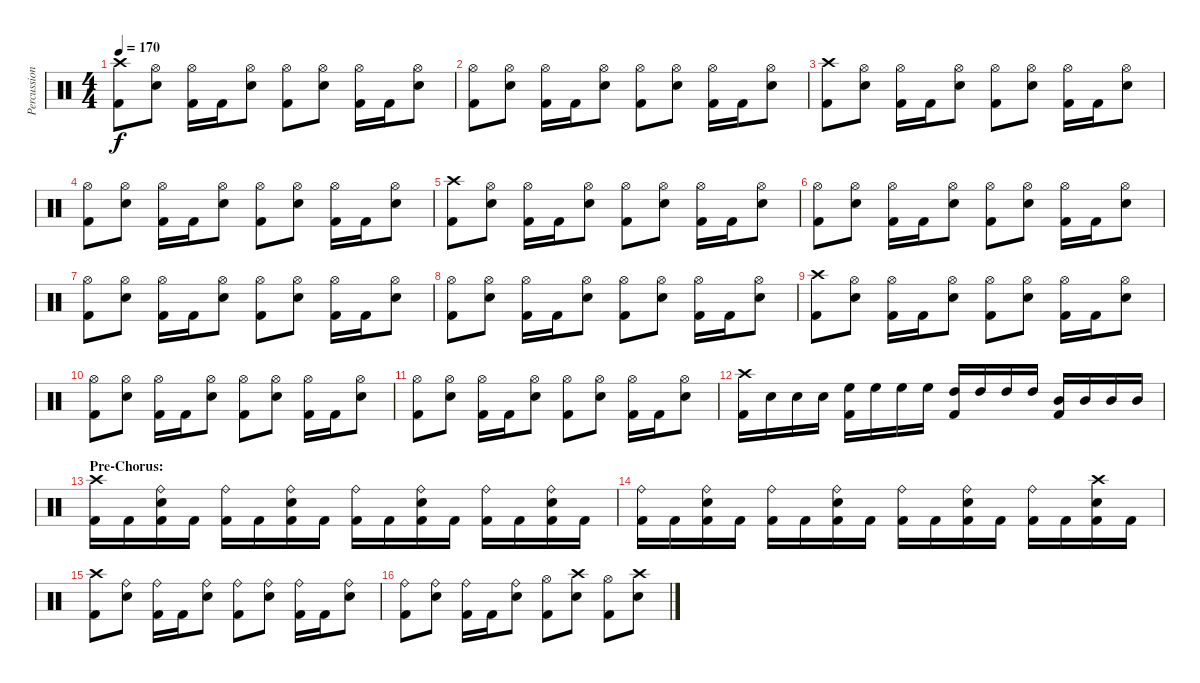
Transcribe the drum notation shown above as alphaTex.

\track ("Percussion" "Percussion") {instrument percussion}
\staff {score}
\articulation defaults
\ts (4 4)
\tempo 170
\clef neutral
\ks c
("Crash high (hit)" "Kick (hit) 2").8{dy f} ("Hi-Hat (open)" "Electric Snare (hit)").8 ("Hi-Hat (open)" "Kick (hit) 2").16 "Kick (hit) 2".16 ("Hi-Hat (open)" "Electric Snare (hit)").8 ("Hi-Hat (open)" "Kick (hit) 2").8 ("Hi-Hat (open)" "Electric Snare (hit)").8 ("Hi-Hat (open)" "Kick (hit) 2").16 "Kick (hit) 2".16 ("Hi-Hat (open)" "Electric Snare (hit)").8 |
("Hi-Hat (open)" "Kick (hit) 2").8 ("Hi-Hat (open)" "Electric Snare (hit)").8 ("Hi-Hat (open)" "Kick (hit) 2").16 "Kick (hit) 2".16 ("Hi-Hat (open)" "Electric Snare (hit)").8 ("Hi-Hat (open)" "Kick (hit) 2").8 ("Hi-Hat (open)" "Electric Snare (hit)").8 ("Hi-Hat (open)" "Kick (hit) 2").16 "Kick (hit) 2".16 ("Hi-Hat (open)" "Electric Snare (hit)").8 |
("Crash high (hit)" "Kick (hit) 2").8 ("Hi-Hat (open)" "Electric Snare (hit)").8 ("Hi-Hat (open)" "Kick (hit) 2").16 "Kick (hit) 2".16 ("Hi-Hat (open)" "Electric Snare (hit)").8 ("Hi-Hat (open)" "Kick (hit) 2").8 ("Hi-Hat (open)" "Electric Snare (hit)").8 ("Hi-Hat (open)" "Kick (hit) 2").16 "Kick (hit) 2".16 ("Hi-Hat (open)" "Electric Snare (hit)").8 |
("Hi-Hat (open)" "Kick (hit) 2").8 ("Hi-Hat (open)" "Electric Snare (hit)").8 ("Hi-Hat (open)" "Kick (hit) 2").16 "Kick (hit) 2".16 ("Hi-Hat (open)" "Electric Snare (hit)").8 ("Hi-Hat (open)" "Kick (hit) 2").8 ("Hi-Hat (open)" "Electric Snare (hit)").8 ("Hi-Hat (open)" "Kick (hit) 2").16 "Kick (hit) 2".16 ("Hi-Hat (open)" "Electric Snare (hit)").8 |
("Crash high (hit)" "Kick (hit) 2").8 ("Hi-Hat (open)" "Electric Snare (hit)").8 ("Hi-Hat (open)" "Kick (hit) 2").16 "Kick (hit) 2".16 ("Hi-Hat (open)" "Electric Snare (hit)").8 ("Hi-Hat (open)" "Kick (hit) 2").8 ("Hi-Hat (open)" "Electric Snare (hit)").8 ("Hi-Hat (open)" "Kick (hit) 2").16 "Kick (hit) 2".16 ("Hi-Hat (open)" "Electric Snare (hit)").8 |
("Hi-Hat (open)" "Kick (hit) 2").8 ("Hi-Hat (open)" "Electric Snare (hit)").8 ("Hi-Hat (open)" "Kick (hit) 2").16 "Kick (hit) 2".16 ("Hi-Hat (open)" "Electric Snare (hit)").8 ("Hi-Hat (open)" "Kick (hit) 2").8 ("Hi-Hat (open)" "Electric Snare (hit)").8 ("Hi-Hat (open)" "Kick (hit) 2").16 "Kick (hit) 2".16 ("Hi-Hat (open)" "Electric Snare (hit)").8 |
("Hi-Hat (open)" "Kick (hit) 2").8 ("Hi-Hat (open)" "Electric Snare (hit)").8 ("Hi-Hat (open)" "Kick (hit) 2").16 "Kick (hit) 2".16 ("Hi-Hat (open)" "Electric Snare (hit)").8 ("Hi-Hat (open)" "Kick (hit) 2").8 ("Hi-Hat (open)" "Electric Snare (hit)").8 ("Hi-Hat (open)" "Kick (hit) 2").16 "Kick (hit) 2".16 ("Hi-Hat (open)" "Electric Snare (hit)").8 |
("Hi-Hat (open)" "Kick (hit) 2").8 ("Hi-Hat (open)" "Electric Snare (hit)").8 ("Hi-Hat (open)" "Kick (hit) 2").16 "Kick (hit) 2".16 ("Hi-Hat (open)" "Electric Snare (hit)").8 ("Hi-Hat (open)" "Kick (hit) 2").8 ("Hi-Hat (open)" "Electric Snare (hit)").8 ("Hi-Hat (open)" "Kick (hit) 2").16 "Kick (hit) 2".16 ("Hi-Hat (open)" "Electric Snare (hit)").8 |
("Crash high (hit)" "Kick (hit) 2").8 ("Hi-Hat (open)" "Electric Snare (hit)").8 ("Hi-Hat (open)" "Kick (hit) 2").16 "Kick (hit) 2".16 ("Hi-Hat (open)" "Electric Snare (hit)").8 ("Hi-Hat (open)" "Kick (hit) 2").8 ("Hi-Hat (open)" "Electric Snare (hit)").8 ("Hi-Hat (open)" "Kick (hit) 2").16 "Kick (hit) 2".16 ("Hi-Hat (open)" "Electric Snare (hit)").8 |
("Hi-Hat (open)" "Kick (hit) 2").8 ("Hi-Hat (open)" "Electric Snare (hit)").8 ("Hi-Hat (open)" "Kick (hit) 2").16 "Kick (hit) 2".16 ("Hi-Hat (open)" "Electric Snare (hit)").8 ("Hi-Hat (open)" "Kick (hit) 2").8 ("Hi-Hat (open)" "Electric Snare (hit)").8 ("Hi-Hat (open)" "Kick (hit) 2").16 "Kick (hit) 2".16 ("Hi-Hat (open)" "Electric Snare (hit)").8 |
("Hi-Hat (open)" "Kick (hit) 2").8 ("Hi-Hat (open)" "Electric Snare (hit)").8 ("Hi-Hat (open)" "Kick (hit) 2").16 "Kick (hit) 2".16 ("Hi-Hat (open)" "Electric Snare (hit)").8 ("Hi-Hat (open)" "Kick (hit) 2").8 ("Hi-Hat (open)" "Electric Snare (hit)").8 ("Hi-Hat (open)" "Kick (hit) 2").16 "Kick (hit) 2".16 ("Hi-Hat (open)" "Electric Snare (hit)").8 |
("Crash high (hit)" "Kick (hit) 2").16 "Electric Snare (hit)".16 "Electric Snare (hit)".16 "Electric Snare (hit)".16 ("High Floor Tom (hit)" "Kick (hit) 2").16 "High Floor Tom (hit)".16 "High Floor Tom (hit)".16 "High Floor Tom (hit)".16 ("High Tom (hit)" "Kick (hit) 2").16 "High Tom (hit)".16 "High Tom (hit)".16 "High Tom (hit)".16 ("Mid Tom (hit)" "Kick (hit) 2").16 "Mid Tom (hit)".16 "Mid Tom (hit)".16 "Mid Tom (hit)".16 |
\section ("" "Pre-Chorus:")
("Crash high (hit)" "Kick (hit) 2").16 "Kick (hit) 2".16 ("Ride (bell)" "Electric Snare (hit)" "Kick (hit) 2").16 "Kick (hit) 2".16 ("Ride (bell)" "Kick (hit) 2").16 "Kick (hit) 2".16 ("Ride (bell)" "Electric Snare (hit)" "Kick (hit) 2").16 "Kick (hit) 2".16 ("Ride (bell)" "Kick (hit) 2").16 "Kick (hit) 2".16 ("Ride (bell)" "Electric Snare (hit)" "Kick (hit) 2").16 "Kick (hit) 2".16 ("Ride (bell)" "Kick (hit) 2").16 "Kick (hit) 2".16 ("Ride (bell)" "Electric Snare (hit)" "Kick (hit) 2").16 "Kick (hit) 2".16 |
("Ride (bell)" "Kick (hit) 2").16 "Kick (hit) 2".16 ("Ride (bell)" "Electric Snare (hit)" "Kick (hit) 2").16 "Kick (hit) 2".16 ("Ride (bell)" "Kick (hit) 2").16 "Kick (hit) 2".16 ("Ride (bell)" "Electric Snare (hit)" "Kick (hit) 2").16 "Kick (hit) 2".16 ("Ride (bell)" "Kick (hit) 2").16 "Kick (hit) 2".16 ("Ride (bell)" "Electric Snare (hit)" "Kick (hit) 2").16 "Kick (hit) 2".16 ("Ride (bell)" "Kick (hit) 2").16 "Kick (hit) 2".16 ("Crash high (hit)" "Electric Snare (hit)" "Kick (hit) 2").16 "Kick (hit) 2".16 |
("Crash high (hit)" "Kick (hit) 2").8 ("Ride (bell)" "Electric Snare (hit)").8 ("Ride (bell)" "Kick (hit) 2").16 "Kick (hit) 2".16 ("Ride (bell)" "Electric Snare (hit)").8 ("Ride (bell)" "Kick (hit) 2").8 ("Ride (bell)" "Electric Snare (hit)").8 ("Ride (bell)" "Kick (hit) 2").16 "Kick (hit) 2".16 ("Ride (bell)" "Electric Snare (hit)").8 |
("Ride (bell)" "Kick (hit) 2").8 ("Ride (bell)" "Electric Snare (hit)").8 ("Ride (bell)" "Kick (hit) 2").16 "Kick (hit) 2".16 ("Ride (bell)" "Electric Snare (hit)").8 ("Hi-Hat (open)" "Kick (hit) 2").8 ("Crash high (hit)" "Electric Snare (hit)").8 ("Hi-Hat (open)" "Kick (hit) 2").8 ("Crash high (hit)" "Electric Snare (hit)").8
